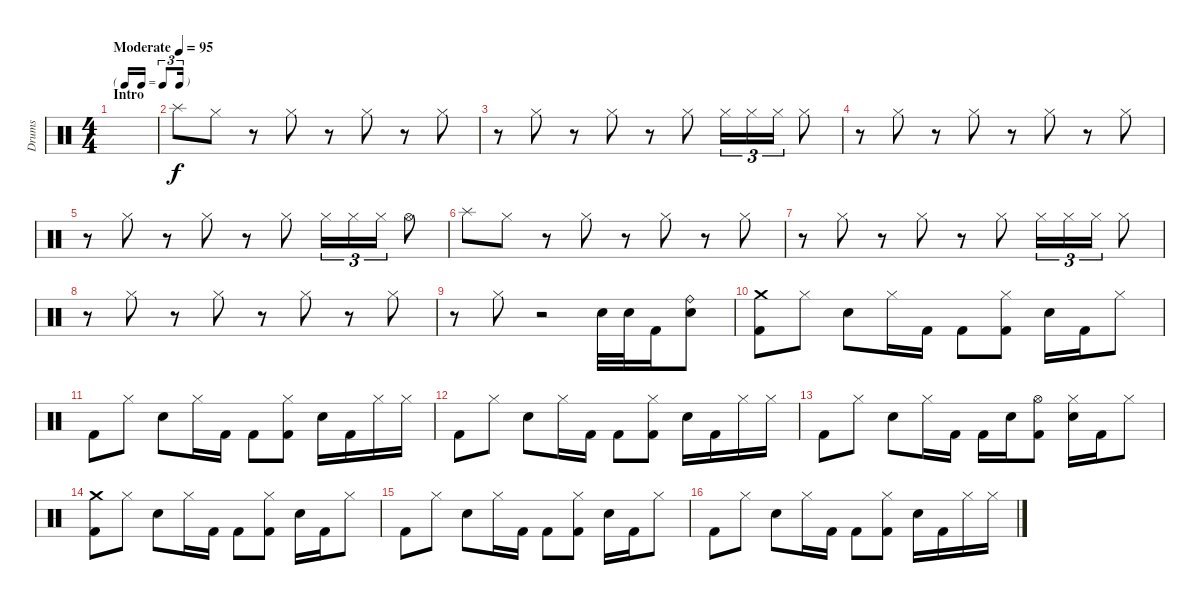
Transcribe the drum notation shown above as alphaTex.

\track ("Drums" "Drums") {instrument percussion}
\staff {score}
\articulation defaults
\ts (4 4)
\tf triplet16th
\section ("" "Intro")
\tempo (95 "Moderate")
\clef neutral
\ks c
|
"Splash (hit)".8 "Hi-Hat (closed)".8 r.8 "Hi-Hat (closed)".8 r.8 "Hi-Hat (closed)".8 r.8 "Hi-Hat (closed)".8 |
r.8 "Hi-Hat (closed)".8 r.8 "Hi-Hat (closed)".8 r.8 "Hi-Hat (closed)".8 "Hi-Hat (closed)".16{tu (3 2)} "Hi-Hat (closed)".16{tu (3 2)} "Hi-Hat (closed)".16{tu (3 2)} "Hi-Hat (closed)".8 |
r.8 "Hi-Hat (closed)".8 r.8 "Hi-Hat (closed)".8 r.8 "Hi-Hat (closed)".8 r.8 "Hi-Hat (closed)".8 |
r.8 "Hi-Hat (closed)".8 r.8 "Hi-Hat (closed)".8 r.8 "Hi-Hat (closed)".8 "Hi-Hat (closed)".16{tu (3 2)} "Hi-Hat (closed)".16{tu (3 2)} "Hi-Hat (closed)".16{tu (3 2)} "Hi-Hat (open)".8 |
"Splash (hit)".8 "Hi-Hat (closed)".8 r.8 "Hi-Hat (closed)".8 r.8 "Hi-Hat (closed)".8 r.8 "Hi-Hat (closed)".8 |
r.8 "Hi-Hat (closed)".8 r.8 "Hi-Hat (closed)".8 r.8 "Hi-Hat (closed)".8 "Hi-Hat (closed)".16{tu (3 2)} "Hi-Hat (closed)".16{tu (3 2)} "Hi-Hat (closed)".16{tu (3 2)} "Hi-Hat (closed)".8 |
r.8 "Hi-Hat (closed)".8 r.8 "Hi-Hat (closed)".8 r.8 "Hi-Hat (closed)".8 r.8 "Hi-Hat (closed)".8 |
r.8 "Hi-Hat (closed)".8 r.2 "Snare (hit) 2".32 "Snare (hit) 2".32 "Kick (hit) 2".16 ("Ride (bell)" "Snare (hit) 2").8 |
("Crash medium (hit)" "Kick (hit) 2").8 "Hi-Hat (closed)".8 "Snare (hit) 2".8 "Hi-Hat (closed)".16 "Kick (hit) 2".16 "Kick (hit) 2".8 ("Hi-Hat (closed)" "Kick (hit) 2").8 "Snare (hit) 2".16 "Kick (hit) 2".16 "Hi-Hat (closed)".8 |
"Kick (hit) 2".8 "Hi-Hat (closed)".8 "Snare (hit) 2".8 "Hi-Hat (closed)".16 "Kick (hit) 2".16 "Kick (hit) 2".8 ("Hi-Hat (closed)" "Kick (hit) 2").8 "Snare (hit) 2".16 "Kick (hit) 2".16 "Hi-Hat (closed)".16 "Hi-Hat (closed)".16 |
"Kick (hit) 2".8 "Hi-Hat (closed)".8 "Snare (hit) 2".8 "Hi-Hat (closed)".16 "Kick (hit) 2".16 "Kick (hit) 2".8 ("Hi-Hat (closed)" "Kick (hit) 2").8 "Snare (hit) 2".16 "Kick (hit) 2".16 "Hi-Hat (closed)".16 "Hi-Hat (closed)".16 |
"Kick (hit) 2".8 "Hi-Hat (closed)".8 "Snare (hit) 2".8 "Hi-Hat (closed)".16 "Kick (hit) 2".16 "Kick (hit) 2".16 "Snare (hit) 2".16 ("Hi-Hat (open)" "Kick (hit) 2").8 ("Hi-Hat (closed)" "Snare (hit) 2").16 "Kick (hit) 2".16 "Hi-Hat (closed)".8 |
("Crash medium (hit)" "Kick (hit) 2").8 "Hi-Hat (closed)".8 "Snare (hit) 2".8 "Hi-Hat (closed)".16 "Kick (hit) 2".16 "Kick (hit) 2".8 ("Hi-Hat (closed)" "Kick (hit) 2").8 "Snare (hit) 2".16 "Kick (hit) 2".16 "Hi-Hat (closed)".8 |
"Kick (hit) 2".8 "Hi-Hat (closed)".8 "Snare (hit) 2".8 "Hi-Hat (closed)".16 "Kick (hit) 2".16 "Kick (hit) 2".8 ("Hi-Hat (closed)" "Kick (hit) 2").8 "Snare (hit) 2".16 "Kick (hit) 2".16 "Hi-Hat (closed)".8 |
"Kick (hit) 2".8 "Hi-Hat (closed)".8 "Snare (hit) 2".8 "Hi-Hat (closed)".16 "Kick (hit) 2".16 "Kick (hit) 2".8 ("Hi-Hat (closed)" "Kick (hit) 2").8 "Snare (hit) 2".16 "Kick (hit) 2".16 "Hi-Hat (closed)".16 "Hi-Hat (closed)".16
